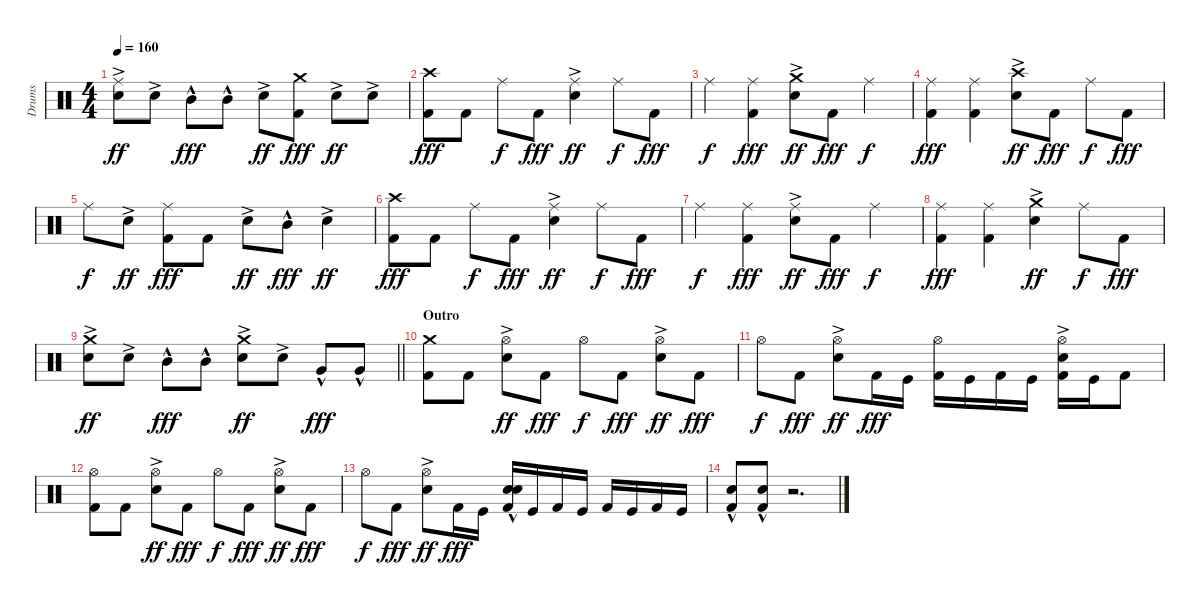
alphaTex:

\track ("Drums" "Drums") {instrument percussion}
\staff {score}
\articulation defaults
\ts (4 4)
\tempo 160
\clef neutral
\ks c
("Ride (middle)" "Snare (hit) 2"{ac}).8{dy ff} "Snare (hit) 2"{ac}.8 "Mid Tom (hit)"{hac}.8{dy fff} "Mid Tom (hit)"{hac}.8 "Snare (hit) 2"{ac}.8{dy ff} ("Crash medium (hit)" "Kick (hit) 2").8{dy fff} "Snare (hit) 2"{ac}.8{dy ff} "Snare (hit) 2"{ac}.8 |
("Crash high (hit)" "Kick (hit) 2").8{dy fff} "Kick (hit) 2".8 "Ride (middle)".8{dy f} "Kick (hit) 2".8{dy fff} ("Ride (middle)" "Snare (hit) 2"{ac}).4{dy ff} "Ride (middle)".8{dy f} "Kick (hit) 2".8{dy fff} |
"Ride (middle)".4{dy f} ("Ride (middle)" "Kick (hit) 2").4{dy fff} ("Crash medium (hit)" "Snare (hit) 2"{ac}).8{dy ff} "Kick (hit) 2".8{dy fff} "Ride (middle)".4{dy f} |
("Ride (middle)" "Kick (hit) 2").4{dy fff} ("Ride (middle)" "Kick (hit) 2").4 ("Crash high (hit)" "Snare (hit) 2"{ac}).8{dy ff} "Kick (hit) 2".8{dy fff} "Ride (middle)".8{dy f} "Kick (hit) 2".8{dy fff} |
"Ride (middle)".8{dy f} "Snare (hit) 2"{ac}.8{dy ff} ("Ride (middle)" "Kick (hit) 2").8{dy fff} "Kick (hit) 2".8 "Snare (hit) 2"{ac}.8{dy ff} "Mid Tom (hit)"{hac}.8{dy fff} "Snare (hit) 2"{ac}.4{dy ff} |
("Crash high (hit)" "Kick (hit) 2").8{dy fff} "Kick (hit) 2".8 "Ride (middle)".8{dy f} "Kick (hit) 2".8{dy fff} ("Ride (middle)" "Snare (hit) 2"{ac}).4{dy ff} "Ride (middle)".8{dy f} "Kick (hit) 2".8{dy fff} |
"Ride (middle)".4{dy f} ("Ride (middle)" "Kick (hit) 2").4{dy fff} ("Ride (middle)" "Snare (hit) 2"{ac}).8{dy ff} "Kick (hit) 2".8{dy fff} "Ride (middle)".4{dy f} |
("Ride (middle)" "Kick (hit) 2").4{dy fff} ("Ride (middle)" "Kick (hit) 2").4 ("Crash medium (hit)" "Snare (hit) 2"{ac}).4{dy ff} "Ride (middle)".8{dy f} "Kick (hit) 2".8{dy fff} |
\barLineRight lightlight
("Crash medium (hit)" "Snare (hit) 2"{ac}).8{dy ff} "Snare (hit) 2"{ac}.8 "Mid Tom (hit)"{hac}.8{dy fff} "Mid Tom (hit)"{hac}.8 ("Crash medium (hit)" "Snare (hit) 2"{ac}).8{dy ff} "Snare (hit) 2"{ac}.8 "Very Low Tom (hit)"{hac}.8{dy fff} "Very Low Tom (hit)"{hac}.8 |
\section ("" "Outro")
("Crash medium (hit)" "Kick (hit) 2").8 "Kick (hit) 2".8 ("Hi-Hat (open)" "Snare (hit) 2"{ac}).8{dy ff} "Kick (hit) 2".8{dy fff} "Hi-Hat (open)".8{dy f} "Kick (hit) 2".8{dy fff} ("Hi-Hat (open)" "Snare (hit) 2"{ac}).8{dy ff} "Kick (hit) 2".8{dy fff} |
"Hi-Hat (open)".8{dy f} "Kick (hit) 2".8{dy fff} ("Hi-Hat (open)" "Snare (hit) 2"{ac}).8{dy ff} "Kick (hit) 2".16{dy fff} "Kick (hit)".16 ("Hi-Hat (open)" "Kick (hit) 2").16 "Kick (hit)".16 "Kick (hit) 2".16 "Kick (hit)".16 ("Hi-Hat (open)" "Snare (hit) 2"{ac} "Kick (hit) 2").16 "Kick (hit)".16 "Kick (hit) 2".8 |
("Hi-Hat (open)" "Kick (hit) 2").8 "Kick (hit) 2".8 ("Hi-Hat (open)" "Snare (hit) 2"{ac}).8{dy ff} "Kick (hit) 2".8{dy fff} "Hi-Hat (open)".8{dy f} "Kick (hit) 2".8{dy fff} ("Hi-Hat (open)" "Snare (hit) 2"{ac}).8{dy ff} "Kick (hit) 2".8{dy fff} |
"Hi-Hat (open)".8{dy f} "Kick (hit) 2".8{dy fff} ("Hi-Hat (open)" "Snare (hit) 2"{ac}).8{dy ff} "Kick (hit) 2".16{dy fff} "Kick (hit)".16 ("Snare (hit) 2"{hac} "Snare (hit) 2"{hac} "Kick (hit) 2").16 "Kick (hit)".16 "Kick (hit) 2".16 "Kick (hit)".16 "Kick (hit) 2".16 "Kick (hit)".16 "Kick (hit) 2".16 "Kick (hit)".16 |
("Snare (hit) 2"{hac} "Kick (hit) 2").8 ("Snare (hit) 2"{hac} "Kick (hit) 2").8 r.2{d volume 0}
